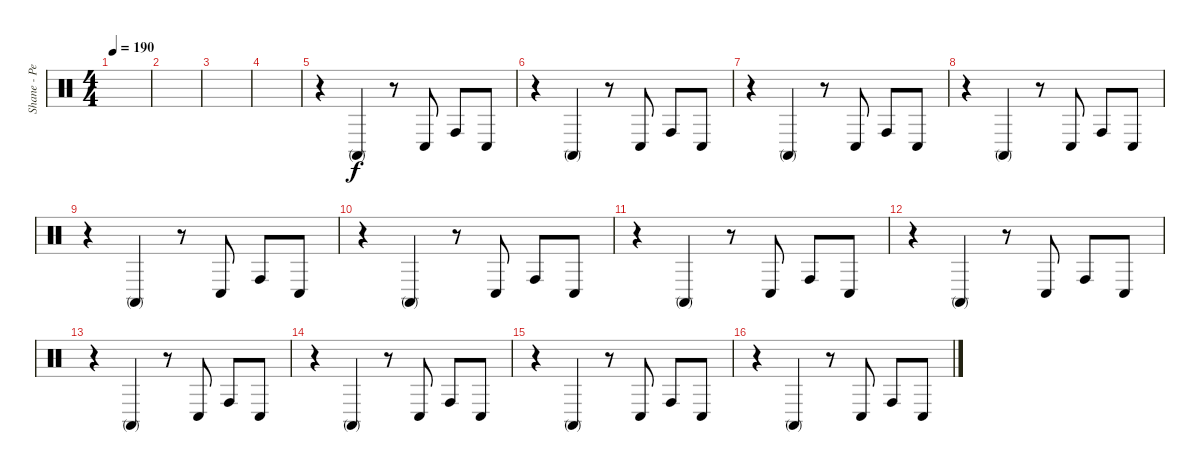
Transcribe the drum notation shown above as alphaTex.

\track ("Shane - Percussion" "Shane - Pe") {instrument percussion}
\staff {score}
\articulation defaults
\ts (4 4)
\tempo 190
\clef neutral
\ks c
|
|
|
|
r.4 "Conga high (mute)".4{dy f} r.8 "Conga low (hit)".8 "Conga high (hit)".8 "Conga low (hit)".8 |
r.4 "Conga high (mute)".4 r.8 "Conga low (hit)".8 "Conga high (hit)".8 "Conga low (hit)".8 |
r.4 "Conga high (mute)".4 r.8 "Conga low (hit)".8 "Conga high (hit)".8 "Conga low (hit)".8 |
r.4 "Conga high (mute)".4 r.8 "Conga low (hit)".8 "Conga high (hit)".8 "Conga low (hit)".8 |
r.4 "Conga high (mute)".4 r.8 "Conga low (hit)".8 "Conga high (hit)".8 "Conga low (hit)".8 |
r.4 "Conga high (mute)".4 r.8 "Conga low (hit)".8 "Conga high (hit)".8 "Conga low (hit)".8 |
r.4 "Conga high (mute)".4 r.8 "Conga low (hit)".8 "Conga high (hit)".8 "Conga low (hit)".8 |
r.4 "Conga high (mute)".4 r.8 "Conga low (hit)".8 "Conga high (hit)".8 "Conga low (hit)".8 |
r.4 "Conga high (mute)".4 r.8 "Conga low (hit)".8 "Conga high (hit)".8 "Conga low (hit)".8 |
r.4 "Conga high (mute)".4 r.8 "Conga low (hit)".8 "Conga high (hit)".8 "Conga low (hit)".8 |
r.4 "Conga high (mute)".4 r.8 "Conga low (hit)".8 "Conga high (hit)".8 "Conga low (hit)".8 |
r.4 "Conga high (mute)".4 r.8 "Conga low (hit)".8 "Conga high (hit)".8 "Conga low (hit)".8
